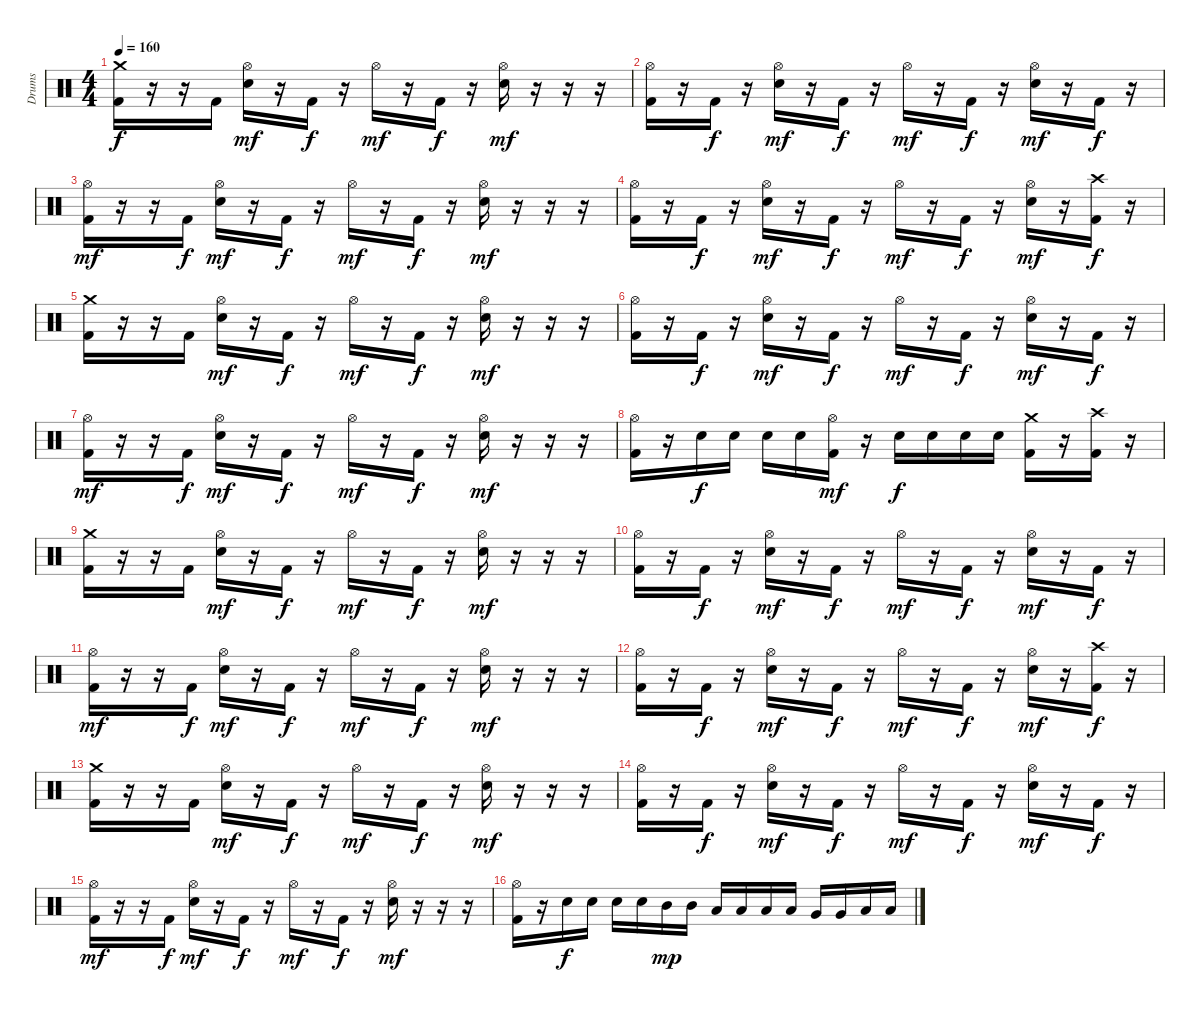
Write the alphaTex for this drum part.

\track ("Drums" "Drums") {instrument percussion}
\staff {score}
\articulation defaults
\ts (4 4)
\tempo 160
\clef neutral
\ks c
("Crash medium (hit)" "Kick (hit) 2").16{dy f} r.16 r.16 "Kick (hit) 2".16 ("Hi-Hat (open)" "Electric Snare (hit)").16{dy mf} r.16 "Kick (hit) 2".16{dy f} r.16 "Hi-Hat (open)".16{dy mf} r.16 "Kick (hit) 2".16{dy f} r.16 ("Hi-Hat (open)" "Electric Snare (hit)").16{dy mf} r.16 r.16 r.16 |
("Hi-Hat (open)" "Kick (hit) 2").16 r.16 "Kick (hit) 2".16{dy f} r.16 ("Hi-Hat (open)" "Electric Snare (hit)").16{dy mf} r.16 "Kick (hit) 2".16{dy f} r.16 "Hi-Hat (open)".16{dy mf} r.16 "Kick (hit) 2".16{dy f} r.16 ("Hi-Hat (open)" "Electric Snare (hit)").16{dy mf} r.16 "Kick (hit) 2".16{dy f} r.16 |
("Hi-Hat (open)" "Kick (hit) 2").16{dy mf} r.16 r.16 "Kick (hit) 2".16{dy f} ("Hi-Hat (open)" "Electric Snare (hit)").16{dy mf} r.16 "Kick (hit) 2".16{dy f} r.16 "Hi-Hat (open)".16{dy mf} r.16 "Kick (hit) 2".16{dy f} r.16 ("Hi-Hat (open)" "Electric Snare (hit)").16{dy mf} r.16 r.16 r.16 |
("Hi-Hat (open)" "Kick (hit) 2").16 r.16 "Kick (hit) 2".16{dy f} r.16 ("Hi-Hat (open)" "Electric Snare (hit)").16{dy mf} r.16 "Kick (hit) 2".16{dy f} r.16 "Hi-Hat (open)".16{dy mf} r.16 "Kick (hit) 2".16{dy f} r.16 ("Hi-Hat (open)" "Electric Snare (hit)").16{dy mf} r.16 ("Crash high (hit)" "Kick (hit) 2").16{dy f} r.16 |
("Crash medium (hit)" "Kick (hit) 2").16 r.16 r.16 "Kick (hit) 2".16 ("Hi-Hat (open)" "Electric Snare (hit)").16{dy mf} r.16 "Kick (hit) 2".16{dy f} r.16 "Hi-Hat (open)".16{dy mf} r.16 "Kick (hit) 2".16{dy f} r.16 ("Hi-Hat (open)" "Electric Snare (hit)").16{dy mf} r.16 r.16 r.16 |
("Hi-Hat (open)" "Kick (hit) 2").16 r.16 "Kick (hit) 2".16{dy f} r.16 ("Hi-Hat (open)" "Electric Snare (hit)").16{dy mf} r.16 "Kick (hit) 2".16{dy f} r.16 "Hi-Hat (open)".16{dy mf} r.16 "Kick (hit) 2".16{dy f} r.16 ("Hi-Hat (open)" "Electric Snare (hit)").16{dy mf} r.16 "Kick (hit) 2".16{dy f} r.16 |
("Hi-Hat (open)" "Kick (hit) 2").16{dy mf} r.16 r.16 "Kick (hit) 2".16{dy f} ("Hi-Hat (open)" "Electric Snare (hit)").16{dy mf} r.16 "Kick (hit) 2".16{dy f} r.16 "Hi-Hat (open)".16{dy mf} r.16 "Kick (hit) 2".16{dy f} r.16 ("Hi-Hat (open)" "Electric Snare (hit)").16{dy mf} r.16 r.16 r.16 |
("Hi-Hat (open)" "Kick (hit) 2").16 r.16 "Snare (hit) 2".16{dy f} "Snare (hit) 2".16 "Snare (hit) 2".16 "Snare (hit) 2".16 ("Hi-Hat (open)" "Kick (hit) 2").16{dy mf} r.16 "Snare (hit) 2".16{dy f} "Snare (hit) 2".16 "Snare (hit) 2".16 "Snare (hit) 2".16 ("Crash medium (hit)" "Kick (hit) 2").16 r.16 ("Crash high (hit)" "Kick (hit) 2").16 r.16 |
("Crash medium (hit)" "Kick (hit) 2").16 r.16 r.16 "Kick (hit) 2".16 ("Hi-Hat (open)" "Electric Snare (hit)").16{dy mf} r.16 "Kick (hit) 2".16{dy f} r.16 "Hi-Hat (open)".16{dy mf} r.16 "Kick (hit) 2".16{dy f} r.16 ("Hi-Hat (open)" "Electric Snare (hit)").16{dy mf} r.16 r.16 r.16 |
("Hi-Hat (open)" "Kick (hit) 2").16 r.16 "Kick (hit) 2".16{dy f} r.16 ("Hi-Hat (open)" "Electric Snare (hit)").16{dy mf} r.16 "Kick (hit) 2".16{dy f} r.16 "Hi-Hat (open)".16{dy mf} r.16 "Kick (hit) 2".16{dy f} r.16 ("Hi-Hat (open)" "Electric Snare (hit)").16{dy mf} r.16 "Kick (hit) 2".16{dy f} r.16 |
("Hi-Hat (open)" "Kick (hit) 2").16{dy mf} r.16 r.16 "Kick (hit) 2".16{dy f} ("Hi-Hat (open)" "Electric Snare (hit)").16{dy mf} r.16 "Kick (hit) 2".16{dy f} r.16 "Hi-Hat (open)".16{dy mf} r.16 "Kick (hit) 2".16{dy f} r.16 ("Hi-Hat (open)" "Electric Snare (hit)").16{dy mf} r.16 r.16 r.16 |
("Hi-Hat (open)" "Kick (hit) 2").16 r.16 "Kick (hit) 2".16{dy f} r.16 ("Hi-Hat (open)" "Electric Snare (hit)").16{dy mf} r.16 "Kick (hit) 2".16{dy f} r.16 "Hi-Hat (open)".16{dy mf} r.16 "Kick (hit) 2".16{dy f} r.16 ("Hi-Hat (open)" "Electric Snare (hit)").16{dy mf} r.16 ("Crash high (hit)" "Kick (hit) 2").16{dy f} r.16 |
("Crash medium (hit)" "Kick (hit) 2").16 r.16 r.16 "Kick (hit) 2".16 ("Hi-Hat (open)" "Electric Snare (hit)").16{dy mf} r.16 "Kick (hit) 2".16{dy f} r.16 "Hi-Hat (open)".16{dy mf} r.16 "Kick (hit) 2".16{dy f} r.16 ("Hi-Hat (open)" "Electric Snare (hit)").16{dy mf} r.16 r.16 r.16 |
("Hi-Hat (open)" "Kick (hit) 2").16 r.16 "Kick (hit) 2".16{dy f} r.16 ("Hi-Hat (open)" "Electric Snare (hit)").16{dy mf} r.16 "Kick (hit) 2".16{dy f} r.16 "Hi-Hat (open)".16{dy mf} r.16 "Kick (hit) 2".16{dy f} r.16 ("Hi-Hat (open)" "Electric Snare (hit)").16{dy mf} r.16 "Kick (hit) 2".16{dy f} r.16 |
("Hi-Hat (open)" "Kick (hit) 2").16{dy mf} r.16 r.16 "Kick (hit) 2".16{dy f} ("Hi-Hat (open)" "Electric Snare (hit)").16{dy mf} r.16 "Kick (hit) 2".16{dy f} r.16 "Hi-Hat (open)".16{dy mf} r.16 "Kick (hit) 2".16{dy f} r.16 ("Hi-Hat (open)" "Electric Snare (hit)").16{dy mf} r.16 r.16 r.16 |
("Hi-Hat (open)" "Kick (hit) 2").16 r.16 "Snare (hit) 2".16{dy f} "Snare (hit) 2".16 "Snare (hit) 2".16 "Snare (hit) 2".16 "Mid Tom (hit)".16{dy mp} "Mid Tom (hit)".16 "Low Tom (hit)".16 "Low Tom (hit)".16 "Low Tom (hit)".16 "Low Tom (hit)".16 "Very Low Tom (hit)".16 "Very Low Tom (hit)".16 "Low Floor Tom (hit)".16 "Low Floor Tom (hit)".16
